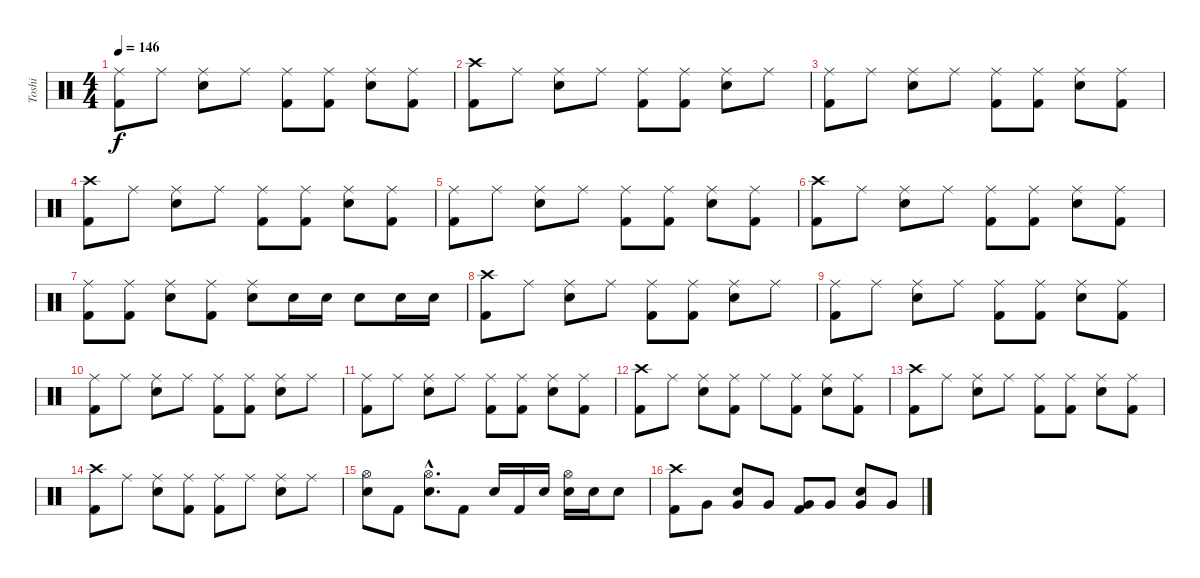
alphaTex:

\track ("Toshi" "Toshi") {instrument percussion}
\staff {score}
\articulation defaults
\ts (4 4)
\tempo 146
\clef neutral
\ks c
("Ride (middle)" "Kick (hit) 2").8{dy f} "Ride (middle)".8 ("Ride (middle)" "Electric Snare (hit)").8 "Ride (middle)".8 ("Ride (middle)" "Kick (hit) 2").8 ("Ride (middle)" "Kick (hit) 2").8 ("Ride (middle)" "Electric Snare (hit)").8 ("Ride (middle)" "Kick (hit) 2").8 |
("Crash high (hit)" "Kick (hit) 2").8 "Ride (middle)".8 ("Ride (middle)" "Electric Snare (hit)").8 "Ride (middle)".8 ("Ride (middle)" "Kick (hit) 2").8 ("Ride (middle)" "Kick (hit) 2").8 ("Ride (middle)" "Electric Snare (hit)").8 "Ride (middle)".8 |
("Ride (middle)" "Kick (hit) 2").8 "Ride (middle)".8 ("Ride (middle)" "Electric Snare (hit)").8 "Ride (middle)".8 ("Ride (middle)" "Kick (hit) 2").8 ("Ride (middle)" "Kick (hit) 2").8 ("Ride (middle)" "Electric Snare (hit)").8 ("Ride (middle)" "Kick (hit) 2").8 |
("Crash high (hit)" "Kick (hit) 2").8 "Ride (middle)".8 ("Ride (middle)" "Electric Snare (hit)").8 "Ride (middle)".8 ("Ride (middle)" "Kick (hit) 2").8 ("Ride (middle)" "Kick (hit) 2").8 ("Ride (middle)" "Electric Snare (hit)").8 ("Ride (middle)" "Kick (hit) 2").8 |
("Ride (middle)" "Kick (hit) 2").8 "Ride (middle)".8 ("Ride (middle)" "Electric Snare (hit)").8 "Ride (middle)".8 ("Ride (middle)" "Kick (hit) 2").8 ("Ride (middle)" "Kick (hit) 2").8 ("Ride (middle)" "Electric Snare (hit)").8 ("Ride (middle)" "Kick (hit) 2").8 |
("Crash high (hit)" "Kick (hit) 2").8 "Ride (middle)".8 ("Ride (middle)" "Electric Snare (hit)").8 "Ride (middle)".8 ("Ride (middle)" "Kick (hit) 2").8 ("Ride (middle)" "Kick (hit) 2").8 ("Ride (middle)" "Electric Snare (hit)").8 ("Ride (middle)" "Kick (hit) 2").8 |
("Ride (middle)" "Kick (hit) 2").8 ("Ride (middle)" "Kick (hit) 2").8 ("Ride (middle)" "Electric Snare (hit)").8 ("Ride (middle)" "Kick (hit) 2").8 ("Ride (middle)" "Electric Snare (hit)").8 "Electric Snare (hit)".16 "Electric Snare (hit)".16 "Electric Snare (hit)".8 "Electric Snare (hit)".16 "Electric Snare (hit)".16 |
("Crash high (hit)" "Kick (hit) 2").8 "Ride (middle)".8 ("Ride (middle)" "Electric Snare (hit)").8 "Ride (middle)".8 ("Ride (middle)" "Kick (hit) 2").8 ("Ride (middle)" "Kick (hit) 2").8 ("Ride (middle)" "Electric Snare (hit)").8 "Ride (middle)".8 |
("Ride (middle)" "Kick (hit) 2").8 "Ride (middle)".8 ("Ride (middle)" "Electric Snare (hit)").8 "Ride (middle)".8 ("Ride (middle)" "Kick (hit) 2").8 ("Ride (middle)" "Kick (hit) 2").8 ("Ride (middle)" "Electric Snare (hit)").8 ("Ride (middle)" "Kick (hit) 2").8 |
("Ride (middle)" "Kick (hit) 2").8 "Ride (middle)".8 ("Ride (middle)" "Electric Snare (hit)").8 "Ride (middle)".8 ("Ride (middle)" "Kick (hit) 2").8 ("Ride (middle)" "Kick (hit) 2").8 ("Ride (middle)" "Electric Snare (hit)").8 "Ride (middle)".8 |
("Ride (middle)" "Kick (hit) 2").8 "Ride (middle)".8 ("Ride (middle)" "Electric Snare (hit)").8 "Ride (middle)".8 ("Ride (middle)" "Kick (hit) 2").8 ("Ride (middle)" "Kick (hit) 2").8 ("Ride (middle)" "Electric Snare (hit)").8 ("Ride (middle)" "Kick (hit) 2").8 |
("Crash high (hit)" "Kick (hit) 2").8 "Ride (middle)".8 ("Ride (middle)" "Electric Snare (hit)").8 ("Ride (middle)" "Kick (hit) 2").8 "Ride (middle)".8 ("Ride (middle)" "Kick (hit) 2").8 ("Ride (middle)" "Electric Snare (hit)").8 ("Ride (middle)" "Kick (hit) 2").8 |
("Crash high (hit)" "Kick (hit) 2").8 "Ride (middle)".8 ("Ride (middle)" "Electric Snare (hit)").8 "Ride (middle)".8 ("Ride (middle)" "Kick (hit) 2").8 ("Ride (middle)" "Kick (hit) 2").8 ("Ride (middle)" "Electric Snare (hit)").8 ("Ride (middle)" "Kick (hit) 2").8 |
("Crash high (hit)" "Kick (hit) 2").8 "Ride (middle)".8 ("Ride (middle)" "Electric Snare (hit)").8 ("Ride (middle)" "Kick (hit) 2").8 ("Ride (middle)" "Kick (hit) 2").8 "Ride (middle)".8 ("Ride (middle)" "Electric Snare (hit)").8 "Ride (middle)".8 |
("Hi-Hat (open)" "Electric Snare (hit)").8 "Kick (hit) 2".8 ("Hi-Hat (open)"{hac} "Electric Snare (hit)"{hac}).8{d} "Kick (hit) 2".8 "Electric Snare (hit)".16 "Kick (hit) 2".16 "Electric Snare (hit)".16 ("Hi-Hat (open)" "Electric Snare (hit)").16 "Electric Snare (hit)".16 "Electric Snare (hit)".8 |
("Crash high (hit)" "Kick (hit) 2").8 "Very Low Tom (hit)".8 ("Very Low Tom (hit)" "Electric Snare (hit)").8 "Very Low Tom (hit)".8 ("Very Low Tom (hit)" "Kick (hit) 2").8 "Very Low Tom (hit)".8 ("Very Low Tom (hit)" "Electric Snare (hit)").8 "Very Low Tom (hit)".8
